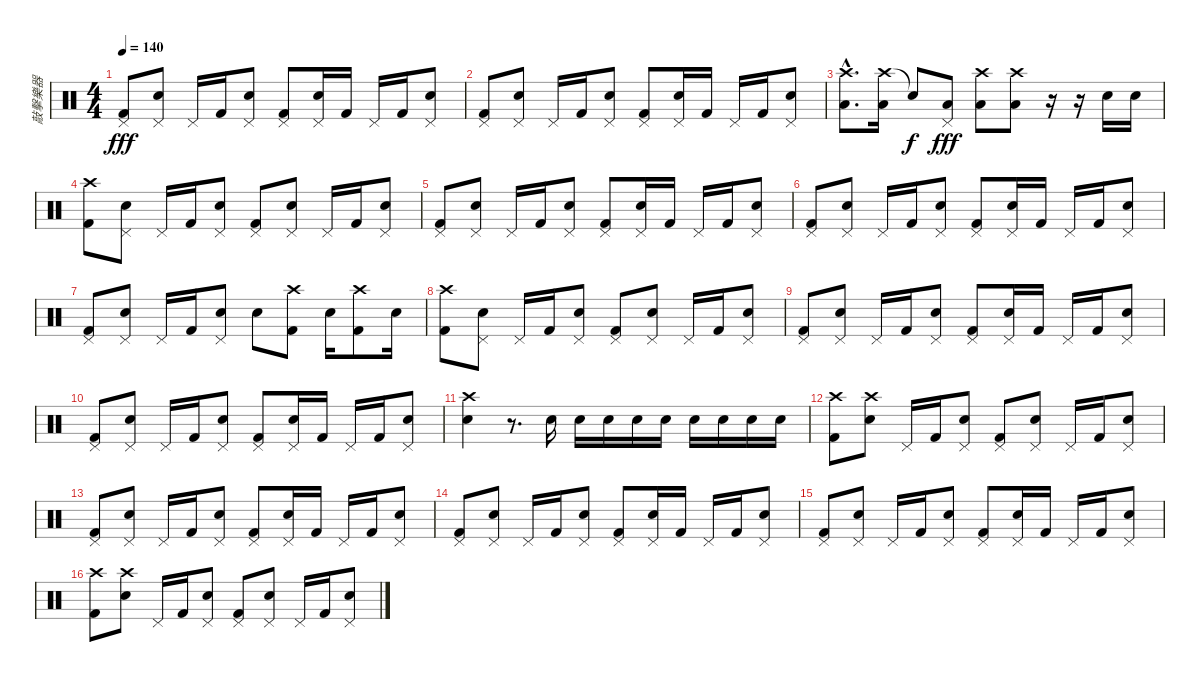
\track ("敲擊樂器" "敲擊樂器") {instrument percussion}
\staff {score}
\articulation defaults
\ts (4 4)
\tempo 140
\clef neutral
\ks c
("Pedal Hi-Hat (hit)" "Kick (hit) 2").8{dy fff} ("Pedal Hi-Hat (hit)" "Snare (hit) 2").8 "Pedal Hi-Hat (hit)".16 "Kick (hit) 2".16 ("Pedal Hi-Hat (hit)" "Snare (hit) 2").8 ("Pedal Hi-Hat (hit)" "Kick (hit) 2").8 ("Pedal Hi-Hat (hit)" "Snare (hit) 2").16 "Kick (hit) 2".16 "Pedal Hi-Hat (hit)".16 "Kick (hit) 2".16 ("Pedal Hi-Hat (hit)" "Snare (hit) 2").8 |
("Pedal Hi-Hat (hit)" "Kick (hit) 2").8 ("Pedal Hi-Hat (hit)" "Snare (hit) 2").8 "Pedal Hi-Hat (hit)".16 "Kick (hit) 2".16 ("Pedal Hi-Hat (hit)" "Snare (hit) 2").8 ("Pedal Hi-Hat (hit)" "Kick (hit) 2").8 ("Pedal Hi-Hat (hit)" "Snare (hit) 2").16 "Kick (hit) 2".16 "Pedal Hi-Hat (hit)".16 "Kick (hit) 2".16 ("Pedal Hi-Hat (hit)" "Snare (hit) 2").8 |
("Crash high (hit)"{hac} "Low Floor Tom (hit)"{hac}).8{d} ("Crash high (hit)" "Low Floor Tom (hit)").16 "Snare (hit)"{t}.8{dy f} ("Pedal Hi-Hat (hit)" "Low Floor Tom (hit)").8{dy fff} ("Crash high (hit)" "Low Floor Tom (hit)").8 ("Crash high (hit)" "Low Floor Tom (hit)").8 r.16 r.16 "Snare (hit) 2".16 "Snare (hit) 2".16 |
("Crash high (hit)" "Kick (hit) 2").8 ("Pedal Hi-Hat (hit)" "Snare (hit) 2").8 "Pedal Hi-Hat (hit)".16 "Kick (hit) 2".16 ("Pedal Hi-Hat (hit)" "Snare (hit) 2").8 ("Pedal Hi-Hat (hit)" "Kick (hit) 2").8 ("Pedal Hi-Hat (hit)" "Snare (hit) 2").8 "Pedal Hi-Hat (hit)".16 "Kick (hit) 2".16 ("Pedal Hi-Hat (hit)" "Snare (hit) 2").8 |
("Pedal Hi-Hat (hit)" "Kick (hit) 2").8 ("Pedal Hi-Hat (hit)" "Snare (hit) 2").8 "Pedal Hi-Hat (hit)".16 "Kick (hit) 2".16 ("Pedal Hi-Hat (hit)" "Snare (hit) 2").8 ("Pedal Hi-Hat (hit)" "Kick (hit) 2").8 ("Pedal Hi-Hat (hit)" "Snare (hit) 2").16 "Kick (hit) 2".16 "Pedal Hi-Hat (hit)".16 "Kick (hit) 2".16 ("Pedal Hi-Hat (hit)" "Snare (hit) 2").8 |
("Pedal Hi-Hat (hit)" "Kick (hit) 2").8 ("Pedal Hi-Hat (hit)" "Snare (hit) 2").8 "Pedal Hi-Hat (hit)".16 "Kick (hit) 2".16 ("Pedal Hi-Hat (hit)" "Snare (hit) 2").8 ("Pedal Hi-Hat (hit)" "Kick (hit) 2").8 ("Pedal Hi-Hat (hit)" "Snare (hit) 2").16 "Kick (hit) 2".16 "Pedal Hi-Hat (hit)".16 "Kick (hit) 2".16 ("Pedal Hi-Hat (hit)" "Snare (hit) 2").8 |
("Pedal Hi-Hat (hit)" "Kick (hit) 2").8 ("Pedal Hi-Hat (hit)" "Snare (hit) 2").8 "Pedal Hi-Hat (hit)".16 "Kick (hit) 2".16 ("Pedal Hi-Hat (hit)" "Snare (hit) 2").8 "Snare (hit) 2".8 ("Crash high (hit)" "Kick (hit) 2").8 "Snare (hit) 2".16 ("Crash high (hit)" "Kick (hit) 2").8 "Snare (hit) 2".16 |
("Crash high (hit)" "Kick (hit) 2").8 ("Pedal Hi-Hat (hit)" "Snare (hit) 2").8 "Pedal Hi-Hat (hit)".16 "Kick (hit) 2".16 ("Pedal Hi-Hat (hit)" "Snare (hit) 2").8 ("Pedal Hi-Hat (hit)" "Kick (hit) 2").8 ("Pedal Hi-Hat (hit)" "Snare (hit) 2").8 "Pedal Hi-Hat (hit)".16 "Kick (hit) 2".16 ("Pedal Hi-Hat (hit)" "Snare (hit) 2").8 |
("Pedal Hi-Hat (hit)" "Kick (hit) 2").8 ("Pedal Hi-Hat (hit)" "Snare (hit) 2").8 "Pedal Hi-Hat (hit)".16 "Kick (hit) 2".16 ("Pedal Hi-Hat (hit)" "Snare (hit) 2").8 ("Pedal Hi-Hat (hit)" "Kick (hit) 2").8 ("Pedal Hi-Hat (hit)" "Snare (hit) 2").16 "Kick (hit) 2".16 "Pedal Hi-Hat (hit)".16 "Kick (hit) 2".16 ("Pedal Hi-Hat (hit)" "Snare (hit) 2").8 |
("Pedal Hi-Hat (hit)" "Kick (hit) 2").8 ("Pedal Hi-Hat (hit)" "Snare (hit) 2").8 "Pedal Hi-Hat (hit)".16 "Kick (hit) 2".16 ("Pedal Hi-Hat (hit)" "Snare (hit) 2").8 ("Pedal Hi-Hat (hit)" "Kick (hit) 2").8 ("Pedal Hi-Hat (hit)" "Snare (hit) 2").16 "Kick (hit) 2".16 "Pedal Hi-Hat (hit)".16 "Kick (hit) 2".16 ("Pedal Hi-Hat (hit)" "Snare (hit) 2").8 |
("Crash high (hit)" "Snare (hit) 2").4 r.8{d} "Snare (hit) 2".16 "Snare (hit) 2".16 "Snare (hit) 2".16 "Snare (hit) 2".16 "Snare (hit) 2".16 "Snare (hit) 2".16 "Snare (hit) 2".16 "Snare (hit) 2".16 "Snare (hit) 2".16 |
("Crash high (hit)" "Kick (hit) 2").8 ("Crash high (hit)" "Snare (hit) 2").8 "Pedal Hi-Hat (hit)".16 "Kick (hit) 2".16 ("Pedal Hi-Hat (hit)" "Snare (hit) 2").8 ("Pedal Hi-Hat (hit)" "Kick (hit) 2").8 ("Pedal Hi-Hat (hit)" "Snare (hit) 2").8 "Pedal Hi-Hat (hit)".16 "Kick (hit) 2".16 ("Pedal Hi-Hat (hit)" "Snare (hit) 2").8 |
("Pedal Hi-Hat (hit)" "Kick (hit) 2").8 ("Pedal Hi-Hat (hit)" "Snare (hit) 2").8 "Pedal Hi-Hat (hit)".16 "Kick (hit) 2".16 ("Pedal Hi-Hat (hit)" "Snare (hit) 2").8 ("Pedal Hi-Hat (hit)" "Kick (hit) 2").8 ("Pedal Hi-Hat (hit)" "Snare (hit) 2").16 "Kick (hit) 2".16 "Pedal Hi-Hat (hit)".16 "Kick (hit) 2".16 ("Pedal Hi-Hat (hit)" "Snare (hit) 2").8 |
("Pedal Hi-Hat (hit)" "Kick (hit) 2").8 ("Pedal Hi-Hat (hit)" "Snare (hit) 2").8 "Pedal Hi-Hat (hit)".16 "Kick (hit) 2".16 ("Pedal Hi-Hat (hit)" "Snare (hit) 2").8 ("Pedal Hi-Hat (hit)" "Kick (hit) 2").8 ("Pedal Hi-Hat (hit)" "Snare (hit) 2").16 "Kick (hit) 2".16 "Pedal Hi-Hat (hit)".16 "Kick (hit) 2".16 ("Pedal Hi-Hat (hit)" "Snare (hit) 2").8 |
("Pedal Hi-Hat (hit)" "Kick (hit) 2").8 ("Pedal Hi-Hat (hit)" "Snare (hit) 2").8 "Pedal Hi-Hat (hit)".16 "Kick (hit) 2".16 ("Pedal Hi-Hat (hit)" "Snare (hit) 2").8 ("Pedal Hi-Hat (hit)" "Kick (hit) 2").8 ("Pedal Hi-Hat (hit)" "Snare (hit) 2").16 "Kick (hit) 2".16 "Pedal Hi-Hat (hit)".16 "Kick (hit) 2".16 ("Pedal Hi-Hat (hit)" "Snare (hit) 2").8 |
("Crash high (hit)" "Kick (hit) 2").8 ("Crash high (hit)" "Snare (hit) 2").8 "Pedal Hi-Hat (hit)".16 "Kick (hit) 2".16 ("Pedal Hi-Hat (hit)" "Snare (hit) 2").8 ("Pedal Hi-Hat (hit)" "Kick (hit) 2").8 ("Pedal Hi-Hat (hit)" "Snare (hit) 2").8 "Pedal Hi-Hat (hit)".16 "Kick (hit) 2".16 ("Pedal Hi-Hat (hit)" "Snare (hit) 2").8
